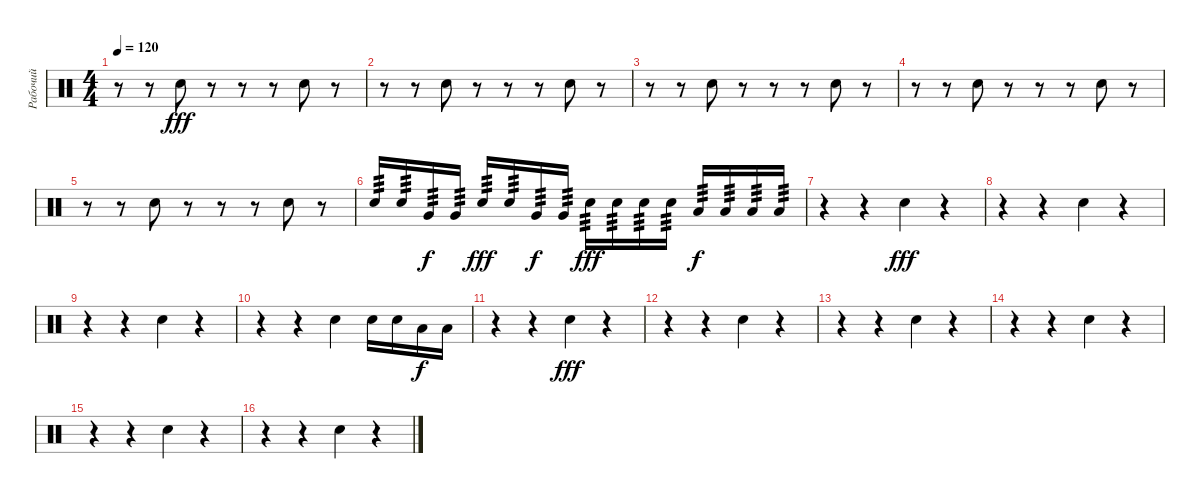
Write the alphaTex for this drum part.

\track ("Рабочий" "Рабочий") {instrument percussion}
\staff {score}
\articulation defaults
\ts (4 4)
\tempo 120
\clef neutral
\ks c
r.8{dy fff} r.8 "Snare (hit) 2".8 r.8 r.8 r.8 "Snare (hit) 2".8 r.8 |
r.8 r.8 "Snare (hit) 2".8 r.8 r.8 r.8 "Snare (hit) 2".8 r.8 |
r.8 r.8 "Snare (hit) 2".8 r.8 r.8 r.8 "Snare (hit) 2".8 r.8 |
r.8 r.8 "Snare (hit) 2".8 r.8 r.8 r.8 "Snare (hit) 2".8 r.8 |
r.8 r.8 "Snare (hit) 2".8 r.8 r.8 r.8 "Snare (hit) 2".8 r.8 |
"Snare (hit) 2".16{tp 3} "Snare (hit) 2".16{tp 3} "Very Low Tom (hit)".16{tp 3 dy f} "Very Low Tom (hit)".16{tp 3} "Snare (hit) 2".16{tp 3 dy fff} "Snare (hit) 2".16{tp 3} "Very Low Tom (hit)".16{tp 3 dy f} "Very Low Tom (hit)".16{tp 3} "Snare (hit) 2".16{tp 3 dy fff} "Snare (hit) 2".16{tp 3} "Snare (hit) 2".16{tp 3} "Snare (hit) 2".16{tp 3} "Low Floor Tom (hit)".16{tp 3 dy f} "Low Floor Tom (hit)".16{tp 3} "Low Floor Tom (hit)".16{tp 3} "Low Floor Tom (hit)".16{tp 3} |
r.4 r.4 "Snare (hit) 2".4{dy fff} r.4 |
r.4 r.4 "Snare (hit) 2".4 r.4 |
r.4 r.4 "Snare (hit) 2".4 r.4 |
r.4 r.4 "Snare (hit) 2".4 "Snare (hit) 2".16 "Snare (hit) 2".16 "Low Tom (hit)".16{dy f} "Low Tom (hit)".16 |
r.4 r.4 "Snare (hit) 2".4{dy fff} r.4 |
r.4 r.4 "Snare (hit) 2".4 r.4 |
r.4 r.4 "Snare (hit) 2".4 r.4 |
r.4 r.4 "Snare (hit) 2".4 r.4 |
r.4 r.4 "Snare (hit) 2".4 r.4 |
r.4 r.4 "Snare (hit) 2".4 r.4
